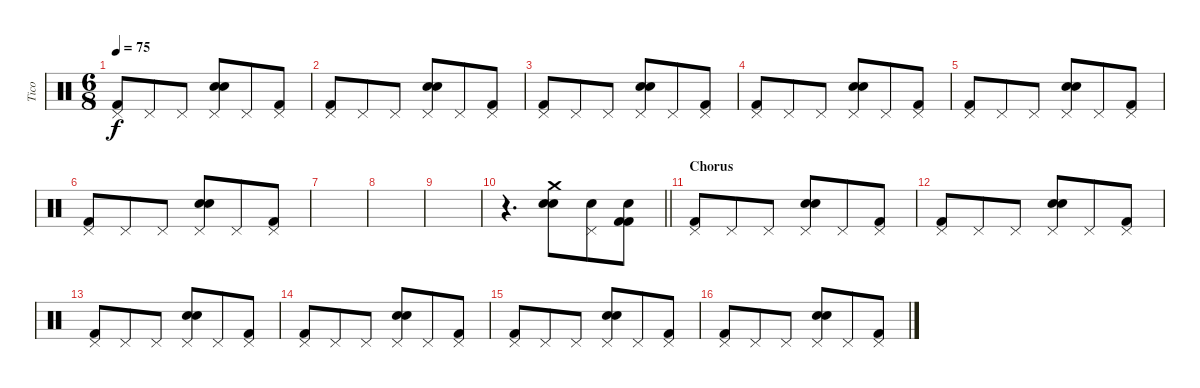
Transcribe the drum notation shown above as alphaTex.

\track ("Tico" "Tico") {instrument percussion}
\staff {score}
\articulation defaults
\ts (6 8)
\tempo 75
\clef neutral
\ks c
("Kick (hit) 2" "Pedal Hi-Hat (hit)").8{dy f} "Pedal Hi-Hat (hit)".8 "Pedal Hi-Hat (hit)".8 ("Electric Snare (hit)" "Snare (hit) 2" "Pedal Hi-Hat (hit)").8 "Pedal Hi-Hat (hit)".8 ("Kick (hit) 2" "Pedal Hi-Hat (hit)").8 |
("Kick (hit) 2" "Pedal Hi-Hat (hit)").8 "Pedal Hi-Hat (hit)".8 "Pedal Hi-Hat (hit)".8 ("Electric Snare (hit)" "Snare (hit) 2" "Pedal Hi-Hat (hit)").8 "Pedal Hi-Hat (hit)".8 ("Kick (hit) 2" "Pedal Hi-Hat (hit)").8 |
("Kick (hit) 2" "Pedal Hi-Hat (hit)").8 "Pedal Hi-Hat (hit)".8 "Pedal Hi-Hat (hit)".8 ("Electric Snare (hit)" "Snare (hit) 2" "Pedal Hi-Hat (hit)").8 "Pedal Hi-Hat (hit)".8 ("Kick (hit) 2" "Pedal Hi-Hat (hit)").8 |
("Kick (hit) 2" "Pedal Hi-Hat (hit)").8 "Pedal Hi-Hat (hit)".8 "Pedal Hi-Hat (hit)".8 ("Electric Snare (hit)" "Snare (hit) 2" "Pedal Hi-Hat (hit)").8 "Pedal Hi-Hat (hit)".8 ("Kick (hit) 2" "Pedal Hi-Hat (hit)").8 |
("Kick (hit) 2" "Pedal Hi-Hat (hit)").8 "Pedal Hi-Hat (hit)".8 "Pedal Hi-Hat (hit)".8 ("Electric Snare (hit)" "Snare (hit) 2" "Pedal Hi-Hat (hit)").8 "Pedal Hi-Hat (hit)".8 ("Kick (hit) 2" "Pedal Hi-Hat (hit)").8 |
("Kick (hit) 2" "Pedal Hi-Hat (hit)").8 "Pedal Hi-Hat (hit)".8 "Pedal Hi-Hat (hit)".8 ("Electric Snare (hit)" "Snare (hit) 2" "Pedal Hi-Hat (hit)").8 "Pedal Hi-Hat (hit)".8 ("Kick (hit) 2" "Pedal Hi-Hat (hit)").8 |
|
|
|
\barLineRight lightlight
r.4{d} ("Electric Snare (hit)" "Snare (hit) 2" "Crash medium (hit)").8 ("Snare (hit) 2" "Pedal Hi-Hat (hit)").8 ("Snare (hit) 2" "Kick (hit) 2" "Kick (hit) 2").8 |
\section ("" "Chorus")
("Kick (hit) 2" "Pedal Hi-Hat (hit)").8 "Pedal Hi-Hat (hit)".8 "Pedal Hi-Hat (hit)".8 ("Electric Snare (hit)" "Snare (hit) 2" "Pedal Hi-Hat (hit)").8 "Pedal Hi-Hat (hit)".8 ("Kick (hit) 2" "Pedal Hi-Hat (hit)").8 |
("Kick (hit) 2" "Pedal Hi-Hat (hit)").8 "Pedal Hi-Hat (hit)".8 "Pedal Hi-Hat (hit)".8 ("Electric Snare (hit)" "Snare (hit) 2" "Pedal Hi-Hat (hit)").8 "Pedal Hi-Hat (hit)".8 ("Kick (hit) 2" "Pedal Hi-Hat (hit)").8 |
("Kick (hit) 2" "Pedal Hi-Hat (hit)").8 "Pedal Hi-Hat (hit)".8 "Pedal Hi-Hat (hit)".8 ("Electric Snare (hit)" "Snare (hit) 2" "Pedal Hi-Hat (hit)").8 "Pedal Hi-Hat (hit)".8 ("Kick (hit) 2" "Pedal Hi-Hat (hit)").8 |
("Kick (hit) 2" "Pedal Hi-Hat (hit)").8 "Pedal Hi-Hat (hit)".8 "Pedal Hi-Hat (hit)".8 ("Electric Snare (hit)" "Snare (hit) 2" "Pedal Hi-Hat (hit)").8 "Pedal Hi-Hat (hit)".8 ("Kick (hit) 2" "Pedal Hi-Hat (hit)").8 |
("Kick (hit) 2" "Pedal Hi-Hat (hit)").8 "Pedal Hi-Hat (hit)".8 "Pedal Hi-Hat (hit)".8 ("Electric Snare (hit)" "Snare (hit) 2" "Pedal Hi-Hat (hit)").8 "Pedal Hi-Hat (hit)".8 ("Kick (hit) 2" "Pedal Hi-Hat (hit)").8 |
("Kick (hit) 2" "Pedal Hi-Hat (hit)").8 "Pedal Hi-Hat (hit)".8 "Pedal Hi-Hat (hit)".8 ("Electric Snare (hit)" "Snare (hit) 2" "Pedal Hi-Hat (hit)").8 "Pedal Hi-Hat (hit)".8 ("Kick (hit) 2" "Pedal Hi-Hat (hit)").8
